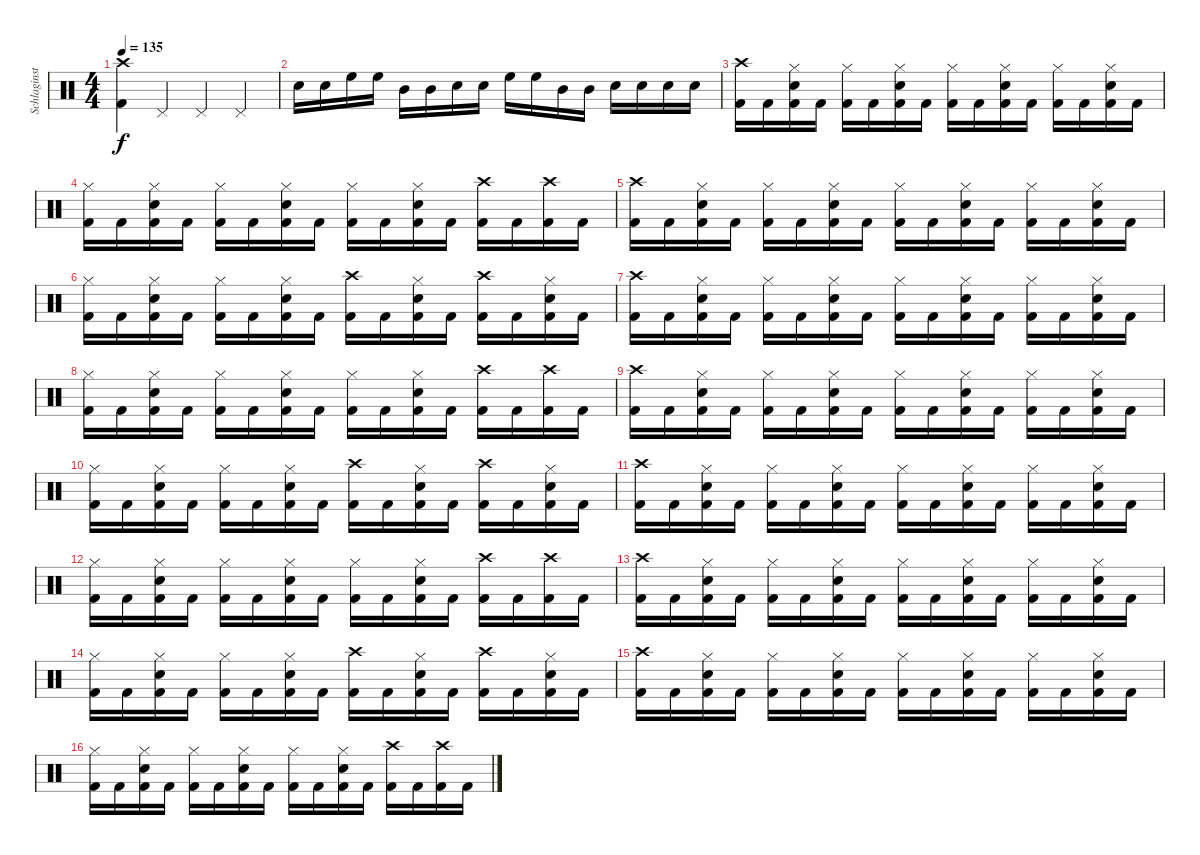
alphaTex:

\track ("Schlaginstrumente - Auswahl" "Schlaginst") {instrument percussion}
\staff {score}
\articulation defaults
\ts (4 4)
\tempo 135
\clef neutral
\ks c
("Crash high (hit)" "Kick (hit) 2").4{dy f} "Pedal Hi-Hat (hit)".4 "Pedal Hi-Hat (hit)".4 "Pedal Hi-Hat (hit)".4 |
"Snare (hit) 2".16 "Snare (hit) 2".16 "High Floor Tom (hit)".16 "High Floor Tom (hit)".16 "Mid Tom (hit)".16 "Mid Tom (hit)".16 "Snare (hit) 2".16 "Snare (hit) 2".16 "High Floor Tom (hit)".16 "High Floor Tom (hit)".16 "Mid Tom (hit)".16 "Mid Tom (hit)".16 "Snare (hit) 2".16 "Snare (hit) 2".16 "Snare (hit) 2".16 "Snare (hit) 2".16 |
("Crash high (hit)" "Kick (hit) 2").16 "Kick (hit) 2".16 ("Hi-Hat (closed)" "Snare (hit) 2" "Kick (hit) 2").16 "Kick (hit) 2".16 ("Hi-Hat (closed)" "Kick (hit) 2").16 "Kick (hit) 2".16 ("Hi-Hat (closed)" "Snare (hit) 2" "Kick (hit) 2").16 "Kick (hit) 2".16 ("Hi-Hat (closed)" "Kick (hit) 2").16 "Kick (hit) 2".16 ("Hi-Hat (closed)" "Snare (hit) 2" "Kick (hit) 2").16 "Kick (hit) 2".16 ("Hi-Hat (closed)" "Kick (hit) 2").16 "Kick (hit) 2".16 ("Hi-Hat (closed)" "Snare (hit) 2" "Kick (hit) 2").16 "Kick (hit) 2".16 |
("Hi-Hat (closed)" "Kick (hit) 2").16 "Kick (hit) 2".16 ("Hi-Hat (closed)" "Snare (hit) 2" "Kick (hit) 2").16 "Kick (hit) 2".16 ("Hi-Hat (closed)" "Kick (hit) 2").16 "Kick (hit) 2".16 ("Hi-Hat (closed)" "Snare (hit) 2" "Kick (hit) 2").16 "Kick (hit) 2".16 ("Hi-Hat (closed)" "Kick (hit) 2").16 "Kick (hit) 2".16 ("Hi-Hat (closed)" "Snare (hit) 2" "Kick (hit) 2").16 "Kick (hit) 2".16 ("Crash high (hit)" "Kick (hit) 2").16 "Kick (hit) 2".16 ("Crash high (hit)" "Kick (hit) 2").16 "Kick (hit) 2".16 |
("Crash high (hit)" "Kick (hit) 2").16 "Kick (hit) 2".16 ("Hi-Hat (closed)" "Snare (hit) 2" "Kick (hit) 2").16 "Kick (hit) 2".16 ("Hi-Hat (closed)" "Kick (hit) 2").16 "Kick (hit) 2".16 ("Hi-Hat (closed)" "Snare (hit) 2" "Kick (hit) 2").16 "Kick (hit) 2".16 ("Hi-Hat (closed)" "Kick (hit) 2").16 "Kick (hit) 2".16 ("Hi-Hat (closed)" "Snare (hit) 2" "Kick (hit) 2").16 "Kick (hit) 2".16 ("Hi-Hat (closed)" "Kick (hit) 2").16 "Kick (hit) 2".16 ("Hi-Hat (closed)" "Snare (hit) 2" "Kick (hit) 2").16 "Kick (hit) 2".16 |
("Hi-Hat (closed)" "Kick (hit) 2").16 "Kick (hit) 2".16 ("Hi-Hat (closed)" "Snare (hit) 2" "Kick (hit) 2").16 "Kick (hit) 2".16 ("Hi-Hat (closed)" "Kick (hit) 2").16 "Kick (hit) 2".16 ("Hi-Hat (closed)" "Snare (hit) 2" "Kick (hit) 2").16 "Kick (hit) 2".16 ("Crash high (hit)" "Kick (hit) 2").16 "Kick (hit) 2".16 ("Hi-Hat (closed)" "Snare (hit) 2" "Kick (hit) 2").16 "Kick (hit) 2".16 ("Crash high (hit)" "Kick (hit) 2").16 "Kick (hit) 2".16 ("Hi-Hat (closed)" "Snare (hit) 2" "Kick (hit) 2").16 "Kick (hit) 2".16 |
("Crash high (hit)" "Kick (hit) 2").16 "Kick (hit) 2".16 ("Hi-Hat (closed)" "Snare (hit) 2" "Kick (hit) 2").16 "Kick (hit) 2".16 ("Hi-Hat (closed)" "Kick (hit) 2").16 "Kick (hit) 2".16 ("Hi-Hat (closed)" "Snare (hit) 2" "Kick (hit) 2").16 "Kick (hit) 2".16 ("Hi-Hat (closed)" "Kick (hit) 2").16 "Kick (hit) 2".16 ("Hi-Hat (closed)" "Snare (hit) 2" "Kick (hit) 2").16 "Kick (hit) 2".16 ("Hi-Hat (closed)" "Kick (hit) 2").16 "Kick (hit) 2".16 ("Hi-Hat (closed)" "Snare (hit) 2" "Kick (hit) 2").16 "Kick (hit) 2".16 |
("Hi-Hat (closed)" "Kick (hit) 2").16 "Kick (hit) 2".16 ("Hi-Hat (closed)" "Snare (hit) 2" "Kick (hit) 2").16 "Kick (hit) 2".16 ("Hi-Hat (closed)" "Kick (hit) 2").16 "Kick (hit) 2".16 ("Hi-Hat (closed)" "Snare (hit) 2" "Kick (hit) 2").16 "Kick (hit) 2".16 ("Hi-Hat (closed)" "Kick (hit) 2").16 "Kick (hit) 2".16 ("Hi-Hat (closed)" "Snare (hit) 2" "Kick (hit) 2").16 "Kick (hit) 2".16 ("Crash high (hit)" "Kick (hit) 2").16 "Kick (hit) 2".16 ("Crash high (hit)" "Kick (hit) 2").16 "Kick (hit) 2".16 |
("Crash high (hit)" "Kick (hit) 2").16 "Kick (hit) 2".16 ("Hi-Hat (closed)" "Snare (hit) 2" "Kick (hit) 2").16 "Kick (hit) 2".16 ("Hi-Hat (closed)" "Kick (hit) 2").16 "Kick (hit) 2".16 ("Hi-Hat (closed)" "Snare (hit) 2" "Kick (hit) 2").16 "Kick (hit) 2".16 ("Hi-Hat (closed)" "Kick (hit) 2").16 "Kick (hit) 2".16 ("Hi-Hat (closed)" "Snare (hit) 2" "Kick (hit) 2").16 "Kick (hit) 2".16 ("Hi-Hat (closed)" "Kick (hit) 2").16 "Kick (hit) 2".16 ("Hi-Hat (closed)" "Snare (hit) 2" "Kick (hit) 2").16 "Kick (hit) 2".16 |
("Hi-Hat (closed)" "Kick (hit) 2").16 "Kick (hit) 2".16 ("Hi-Hat (closed)" "Snare (hit) 2" "Kick (hit) 2").16 "Kick (hit) 2".16 ("Hi-Hat (closed)" "Kick (hit) 2").16 "Kick (hit) 2".16 ("Hi-Hat (closed)" "Snare (hit) 2" "Kick (hit) 2").16 "Kick (hit) 2".16 ("Crash high (hit)" "Kick (hit) 2").16 "Kick (hit) 2".16 ("Hi-Hat (closed)" "Snare (hit) 2" "Kick (hit) 2").16 "Kick (hit) 2".16 ("Crash high (hit)" "Kick (hit) 2").16 "Kick (hit) 2".16 ("Hi-Hat (closed)" "Snare (hit) 2" "Kick (hit) 2").16 "Kick (hit) 2".16 |
("Crash high (hit)" "Kick (hit) 2").16 "Kick (hit) 2".16 ("Hi-Hat (closed)" "Snare (hit) 2" "Kick (hit) 2").16 "Kick (hit) 2".16 ("Hi-Hat (closed)" "Kick (hit) 2").16 "Kick (hit) 2".16 ("Hi-Hat (closed)" "Snare (hit) 2" "Kick (hit) 2").16 "Kick (hit) 2".16 ("Hi-Hat (closed)" "Kick (hit) 2").16 "Kick (hit) 2".16 ("Hi-Hat (closed)" "Snare (hit) 2" "Kick (hit) 2").16 "Kick (hit) 2".16 ("Hi-Hat (closed)" "Kick (hit) 2").16 "Kick (hit) 2".16 ("Hi-Hat (closed)" "Snare (hit) 2" "Kick (hit) 2").16 "Kick (hit) 2".16 |
("Hi-Hat (closed)" "Kick (hit) 2").16 "Kick (hit) 2".16 ("Hi-Hat (closed)" "Snare (hit) 2" "Kick (hit) 2").16 "Kick (hit) 2".16 ("Hi-Hat (closed)" "Kick (hit) 2").16 "Kick (hit) 2".16 ("Hi-Hat (closed)" "Snare (hit) 2" "Kick (hit) 2").16 "Kick (hit) 2".16 ("Hi-Hat (closed)" "Kick (hit) 2").16 "Kick (hit) 2".16 ("Hi-Hat (closed)" "Snare (hit) 2" "Kick (hit) 2").16 "Kick (hit) 2".16 ("Crash high (hit)" "Kick (hit) 2").16 "Kick (hit) 2".16 ("Crash high (hit)" "Kick (hit) 2").16 "Kick (hit) 2".16 |
("Crash high (hit)" "Kick (hit) 2").16 "Kick (hit) 2".16 ("Hi-Hat (closed)" "Snare (hit) 2" "Kick (hit) 2").16 "Kick (hit) 2".16 ("Hi-Hat (closed)" "Kick (hit) 2").16 "Kick (hit) 2".16 ("Hi-Hat (closed)" "Snare (hit) 2" "Kick (hit) 2").16 "Kick (hit) 2".16 ("Hi-Hat (closed)" "Kick (hit) 2").16 "Kick (hit) 2".16 ("Hi-Hat (closed)" "Snare (hit) 2" "Kick (hit) 2").16 "Kick (hit) 2".16 ("Hi-Hat (closed)" "Kick (hit) 2").16 "Kick (hit) 2".16 ("Hi-Hat (closed)" "Snare (hit) 2" "Kick (hit) 2").16 "Kick (hit) 2".16 |
("Hi-Hat (closed)" "Kick (hit) 2").16 "Kick (hit) 2".16 ("Hi-Hat (closed)" "Snare (hit) 2" "Kick (hit) 2").16 "Kick (hit) 2".16 ("Hi-Hat (closed)" "Kick (hit) 2").16 "Kick (hit) 2".16 ("Hi-Hat (closed)" "Snare (hit) 2" "Kick (hit) 2").16 "Kick (hit) 2".16 ("Crash high (hit)" "Kick (hit) 2").16 "Kick (hit) 2".16 ("Hi-Hat (closed)" "Snare (hit) 2" "Kick (hit) 2").16 "Kick (hit) 2".16 ("Crash high (hit)" "Kick (hit) 2").16 "Kick (hit) 2".16 ("Hi-Hat (closed)" "Snare (hit) 2" "Kick (hit) 2").16 "Kick (hit) 2".16 |
("Crash high (hit)" "Kick (hit) 2").16 "Kick (hit) 2".16 ("Hi-Hat (closed)" "Snare (hit) 2" "Kick (hit) 2").16 "Kick (hit) 2".16 ("Hi-Hat (closed)" "Kick (hit) 2").16 "Kick (hit) 2".16 ("Hi-Hat (closed)" "Snare (hit) 2" "Kick (hit) 2").16 "Kick (hit) 2".16 ("Hi-Hat (closed)" "Kick (hit) 2").16 "Kick (hit) 2".16 ("Hi-Hat (closed)" "Snare (hit) 2" "Kick (hit) 2").16 "Kick (hit) 2".16 ("Hi-Hat (closed)" "Kick (hit) 2").16 "Kick (hit) 2".16 ("Hi-Hat (closed)" "Snare (hit) 2" "Kick (hit) 2").16 "Kick (hit) 2".16 |
("Hi-Hat (closed)" "Kick (hit) 2").16 "Kick (hit) 2".16 ("Hi-Hat (closed)" "Snare (hit) 2" "Kick (hit) 2").16 "Kick (hit) 2".16 ("Hi-Hat (closed)" "Kick (hit) 2").16 "Kick (hit) 2".16 ("Hi-Hat (closed)" "Snare (hit) 2" "Kick (hit) 2").16 "Kick (hit) 2".16 ("Hi-Hat (closed)" "Kick (hit) 2").16 "Kick (hit) 2".16 ("Hi-Hat (closed)" "Snare (hit) 2" "Kick (hit) 2").16 "Kick (hit) 2".16 ("Crash high (hit)" "Kick (hit) 2").16 "Kick (hit) 2".16 ("Crash high (hit)" "Kick (hit) 2").16 "Kick (hit) 2".16
